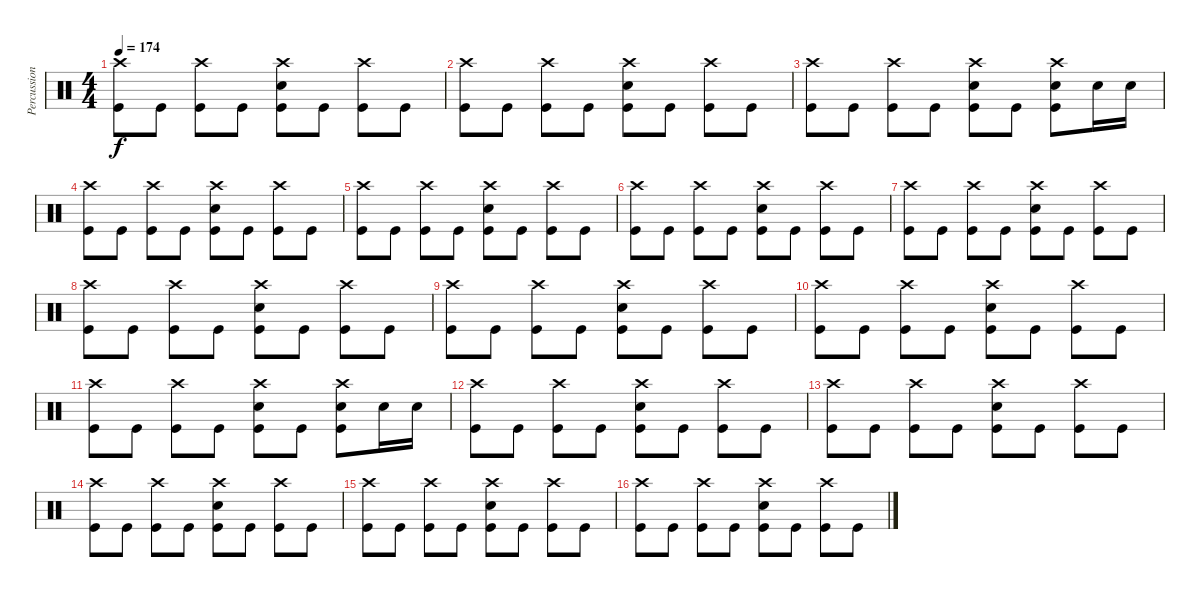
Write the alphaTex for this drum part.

\track ("Percussion" "Percussion") {instrument percussion}
\staff {score}
\articulation defaults
\ts (4 4)
\tempo 174
\clef neutral
\ks c
("Crash high (hit)" "Kick (hit)").8{dy f} "Kick (hit)".8 ("Crash high (hit)" "Kick (hit)").8 "Kick (hit)".8 ("Crash high (hit)" "Electric Snare (hit)" "Kick (hit)").8 "Kick (hit)".8 ("Crash high (hit)" "Kick (hit)").8 "Kick (hit)".8 |
("Crash high (hit)" "Kick (hit)").8 "Kick (hit)".8 ("Crash high (hit)" "Kick (hit)").8 "Kick (hit)".8 ("Crash high (hit)" "Electric Snare (hit)" "Kick (hit)").8 "Kick (hit)".8 ("Crash high (hit)" "Kick (hit)").8 "Kick (hit)".8 |
("Crash high (hit)" "Kick (hit)").8 "Kick (hit)".8 ("Crash high (hit)" "Kick (hit)").8 "Kick (hit)".8 ("Crash high (hit)" "Electric Snare (hit)" "Kick (hit)").8 "Kick (hit)".8 ("Crash high (hit)" "Electric Snare (hit)" "Kick (hit)").8 "Electric Snare (hit)".16 "Electric Snare (hit)".16 |
("Crash high (hit)" "Kick (hit)").8 "Kick (hit)".8 ("Crash high (hit)" "Kick (hit)").8 "Kick (hit)".8 ("Crash high (hit)" "Electric Snare (hit)" "Kick (hit)").8 "Kick (hit)".8 ("Crash high (hit)" "Kick (hit)").8 "Kick (hit)".8 |
("Crash high (hit)" "Kick (hit)").8 "Kick (hit)".8 ("Crash high (hit)" "Kick (hit)").8 "Kick (hit)".8 ("Crash high (hit)" "Electric Snare (hit)" "Kick (hit)").8 "Kick (hit)".8 ("Crash high (hit)" "Kick (hit)").8 "Kick (hit)".8 |
("Crash high (hit)" "Kick (hit)").8 "Kick (hit)".8 ("Crash high (hit)" "Kick (hit)").8 "Kick (hit)".8 ("Crash high (hit)" "Electric Snare (hit)" "Kick (hit)").8 "Kick (hit)".8 ("Crash high (hit)" "Kick (hit)").8 "Kick (hit)".8 |
("Crash high (hit)" "Kick (hit)").8 "Kick (hit)".8 ("Crash high (hit)" "Kick (hit)").8 "Kick (hit)".8 ("Crash high (hit)" "Electric Snare (hit)" "Kick (hit)").8 "Kick (hit)".8 ("Crash high (hit)" "Kick (hit)").8 "Kick (hit)".8 |
("Crash high (hit)" "Kick (hit)").8 "Kick (hit)".8 ("Crash high (hit)" "Kick (hit)").8 "Kick (hit)".8 ("Crash high (hit)" "Electric Snare (hit)" "Kick (hit)").8 "Kick (hit)".8 ("Crash high (hit)" "Kick (hit)").8 "Kick (hit)".8 |
("Crash high (hit)" "Kick (hit)").8 "Kick (hit)".8 ("Crash high (hit)" "Kick (hit)").8 "Kick (hit)".8 ("Crash high (hit)" "Electric Snare (hit)" "Kick (hit)").8 "Kick (hit)".8 ("Crash high (hit)" "Kick (hit)").8 "Kick (hit)".8 |
("Crash high (hit)" "Kick (hit)").8 "Kick (hit)".8 ("Crash high (hit)" "Kick (hit)").8 "Kick (hit)".8 ("Crash high (hit)" "Electric Snare (hit)" "Kick (hit)").8 "Kick (hit)".8 ("Crash high (hit)" "Kick (hit)").8 "Kick (hit)".8 |
("Crash high (hit)" "Kick (hit)").8 "Kick (hit)".8 ("Crash high (hit)" "Kick (hit)").8 "Kick (hit)".8 ("Crash high (hit)" "Electric Snare (hit)" "Kick (hit)").8 "Kick (hit)".8 ("Crash high (hit)" "Electric Snare (hit)" "Kick (hit)").8 "Electric Snare (hit)".16 "Electric Snare (hit)".16 |
("Crash high (hit)" "Kick (hit)").8 "Kick (hit)".8 ("Crash high (hit)" "Kick (hit)").8 "Kick (hit)".8 ("Crash high (hit)" "Electric Snare (hit)" "Kick (hit)").8 "Kick (hit)".8 ("Crash high (hit)" "Kick (hit)").8 "Kick (hit)".8 |
("Crash high (hit)" "Kick (hit)").8 "Kick (hit)".8 ("Crash high (hit)" "Kick (hit)").8 "Kick (hit)".8 ("Crash high (hit)" "Electric Snare (hit)" "Kick (hit)").8 "Kick (hit)".8 ("Crash high (hit)" "Kick (hit)").8 "Kick (hit)".8 |
("Crash high (hit)" "Kick (hit)").8 "Kick (hit)".8 ("Crash high (hit)" "Kick (hit)").8 "Kick (hit)".8 ("Crash high (hit)" "Electric Snare (hit)" "Kick (hit)").8 "Kick (hit)".8 ("Crash high (hit)" "Kick (hit)").8 "Kick (hit)".8 |
("Crash high (hit)" "Kick (hit)").8 "Kick (hit)".8 ("Crash high (hit)" "Kick (hit)").8 "Kick (hit)".8 ("Crash high (hit)" "Electric Snare (hit)" "Kick (hit)").8 "Kick (hit)".8 ("Crash high (hit)" "Kick (hit)").8 "Kick (hit)".8 |
("Crash high (hit)" "Kick (hit)").8 "Kick (hit)".8 ("Crash high (hit)" "Kick (hit)").8 "Kick (hit)".8 ("Crash high (hit)" "Electric Snare (hit)" "Kick (hit)").8 "Kick (hit)".8 ("Crash high (hit)" "Kick (hit)").8 "Kick (hit)".8
